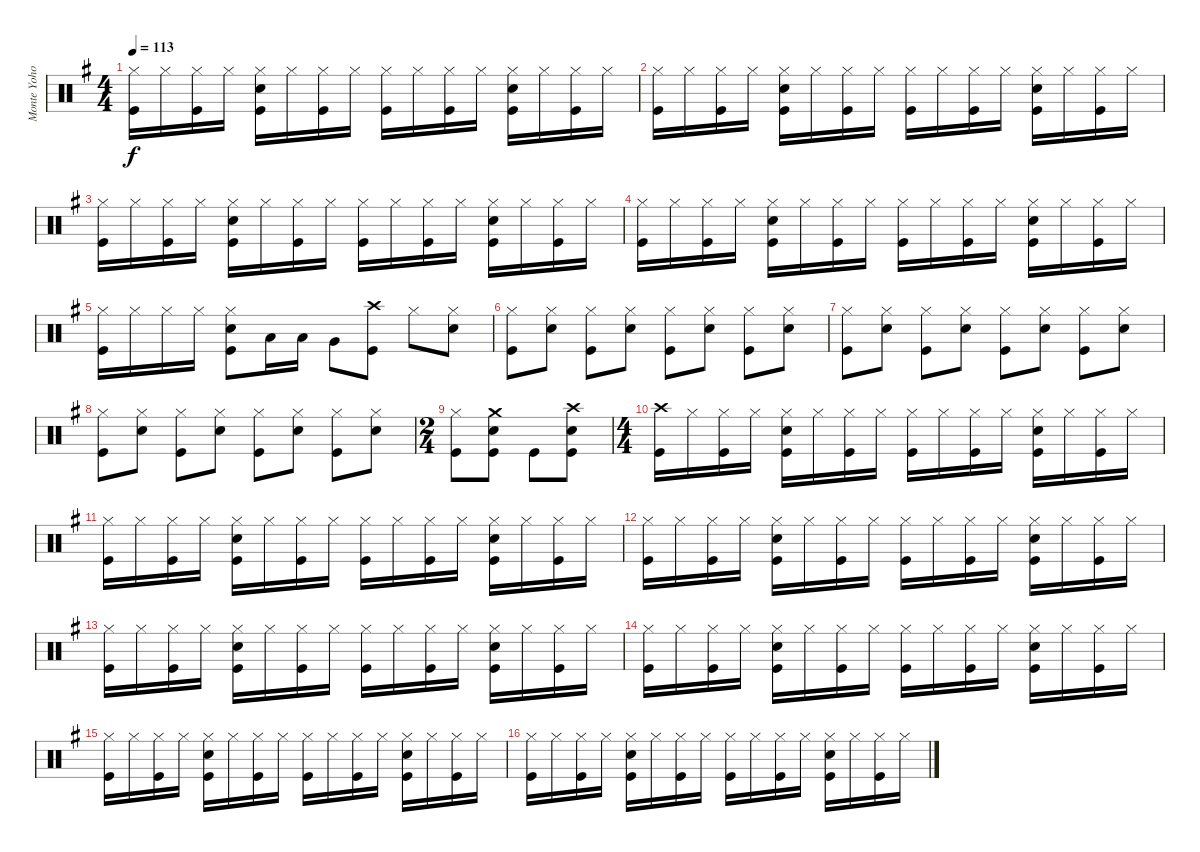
\track ("Monte Yoho Drums" "Monte Yoho") {instrument percussion}
\staff {score}
\articulation defaults
\ts (4 4)
\tempo 113
\clef neutral
\ks eminor
("Hi-Hat (closed)" "Kick (hit)").16{dy f} "Hi-Hat (closed)".16 ("Hi-Hat (closed)" "Kick (hit)").16 "Hi-Hat (closed)".16 ("Hi-Hat (closed)" "Snare (hit) 2" "Kick (hit)").16 "Hi-Hat (closed)".16 ("Hi-Hat (closed)" "Kick (hit)").16 "Hi-Hat (closed)".16 ("Hi-Hat (closed)" "Kick (hit)").16 "Hi-Hat (closed)".16 ("Hi-Hat (closed)" "Kick (hit)").16 "Hi-Hat (closed)".16 ("Hi-Hat (closed)" "Snare (hit) 2" "Kick (hit)").16 "Hi-Hat (closed)".16 ("Hi-Hat (closed)" "Kick (hit)").16 "Hi-Hat (closed)".16 |
("Hi-Hat (closed)" "Kick (hit)").16 "Hi-Hat (closed)".16 ("Hi-Hat (closed)" "Kick (hit)").16 "Hi-Hat (closed)".16 ("Hi-Hat (closed)" "Snare (hit) 2" "Kick (hit)").16 "Hi-Hat (closed)".16 ("Hi-Hat (closed)" "Kick (hit)").16 "Hi-Hat (closed)".16 ("Hi-Hat (closed)" "Kick (hit)").16 "Hi-Hat (closed)".16 ("Hi-Hat (closed)" "Kick (hit)").16 "Hi-Hat (closed)".16 ("Hi-Hat (closed)" "Snare (hit) 2" "Kick (hit)").16 "Hi-Hat (closed)".16 ("Hi-Hat (closed)" "Kick (hit)").16 "Hi-Hat (closed)".16 |
("Hi-Hat (closed)" "Kick (hit)").16 "Hi-Hat (closed)".16 ("Hi-Hat (closed)" "Kick (hit)").16 "Hi-Hat (closed)".16 ("Hi-Hat (closed)" "Snare (hit) 2" "Kick (hit)").16 "Hi-Hat (closed)".16 ("Hi-Hat (closed)" "Kick (hit)").16 "Hi-Hat (closed)".16 ("Hi-Hat (closed)" "Kick (hit)").16 "Hi-Hat (closed)".16 ("Hi-Hat (closed)" "Kick (hit)").16 "Hi-Hat (closed)".16 ("Hi-Hat (closed)" "Snare (hit) 2" "Kick (hit)").16 "Hi-Hat (closed)".16 ("Hi-Hat (closed)" "Kick (hit)").16 "Hi-Hat (closed)".16 |
("Hi-Hat (closed)" "Kick (hit)").16 "Hi-Hat (closed)".16 ("Hi-Hat (closed)" "Kick (hit)").16 "Hi-Hat (closed)".16 ("Hi-Hat (closed)" "Snare (hit) 2" "Kick (hit)").16 "Hi-Hat (closed)".16 ("Hi-Hat (closed)" "Kick (hit)").16 "Hi-Hat (closed)".16 ("Hi-Hat (closed)" "Kick (hit)").16 "Hi-Hat (closed)".16 ("Hi-Hat (closed)" "Kick (hit)").16 "Hi-Hat (closed)".16 ("Hi-Hat (closed)" "Snare (hit) 2" "Kick (hit)").16 "Hi-Hat (closed)".16 ("Hi-Hat (closed)" "Kick (hit)").16 "Hi-Hat (closed)".16 |
("Hi-Hat (closed)" "Kick (hit)").16 "Hi-Hat (closed)".16 "Hi-Hat (closed)".16 "Hi-Hat (closed)".16 ("Hi-Hat (closed)" "Snare (hit) 2" "Kick (hit)").8 "Low Tom (hit)".16 "Low Tom (hit)".16 "Very Low Tom (hit)".8 ("Crash high (hit)" "Kick (hit)").8 "Hi-Hat (closed)".8 ("Hi-Hat (closed)" "Snare (hit) 2").8 |
("Hi-Hat (closed)" "Kick (hit)").8 ("Hi-Hat (closed)" "Snare (hit) 2").8 ("Hi-Hat (closed)" "Kick (hit)").8 ("Hi-Hat (closed)" "Snare (hit) 2").8 ("Hi-Hat (closed)" "Kick (hit)").8 ("Hi-Hat (closed)" "Snare (hit) 2").8 ("Hi-Hat (closed)" "Kick (hit)").8 ("Hi-Hat (closed)" "Snare (hit) 2").8 |
("Hi-Hat (closed)" "Kick (hit)").8 ("Hi-Hat (closed)" "Snare (hit) 2").8 ("Hi-Hat (closed)" "Kick (hit)").8 ("Hi-Hat (closed)" "Snare (hit) 2").8 ("Hi-Hat (closed)" "Kick (hit)").8 ("Hi-Hat (closed)" "Snare (hit) 2").8 ("Hi-Hat (closed)" "Kick (hit)").8 ("Hi-Hat (closed)" "Snare (hit) 2").8 |
("Hi-Hat (closed)" "Kick (hit)").8 ("Hi-Hat (closed)" "Snare (hit) 2").8 ("Hi-Hat (closed)" "Kick (hit)").8 ("Hi-Hat (closed)" "Snare (hit) 2").8 ("Hi-Hat (closed)" "Kick (hit)").8 ("Hi-Hat (closed)" "Snare (hit) 2").8 ("Hi-Hat (closed)" "Kick (hit)").8 ("Hi-Hat (closed)" "Snare (hit) 2").8 |
\ts (2 4)
("Hi-Hat (closed)" "Kick (hit)").8 ("Crash medium (hit)" "Snare (hit) 2" "Kick (hit)").8 "Kick (hit)".8 ("Crash high (hit)" "Snare (hit) 2" "Kick (hit)").8 |
\ts (4 4)
("Crash high (hit)" "Kick (hit)").16 "Hi-Hat (closed)".16 ("Hi-Hat (closed)" "Kick (hit)").16 "Hi-Hat (closed)".16 ("Hi-Hat (closed)" "Snare (hit) 2" "Kick (hit)").16 "Hi-Hat (closed)".16 ("Hi-Hat (closed)" "Kick (hit)").16 "Hi-Hat (closed)".16 ("Hi-Hat (closed)" "Kick (hit)").16 "Hi-Hat (closed)".16 ("Hi-Hat (closed)" "Kick (hit)").16 "Hi-Hat (closed)".16 ("Hi-Hat (closed)" "Snare (hit) 2" "Kick (hit)").16 "Hi-Hat (closed)".16 ("Hi-Hat (closed)" "Kick (hit)").16 "Hi-Hat (closed)".16 |
("Hi-Hat (closed)" "Kick (hit)").16 "Hi-Hat (closed)".16 ("Hi-Hat (closed)" "Kick (hit)").16 "Hi-Hat (closed)".16 ("Hi-Hat (closed)" "Snare (hit) 2" "Kick (hit)").16 "Hi-Hat (closed)".16 ("Hi-Hat (closed)" "Kick (hit)").16 "Hi-Hat (closed)".16 ("Hi-Hat (closed)" "Kick (hit)").16 "Hi-Hat (closed)".16 ("Hi-Hat (closed)" "Kick (hit)").16 "Hi-Hat (closed)".16 ("Hi-Hat (closed)" "Snare (hit) 2" "Kick (hit)").16 "Hi-Hat (closed)".16 ("Hi-Hat (closed)" "Kick (hit)").16 "Hi-Hat (closed)".16 |
("Hi-Hat (closed)" "Kick (hit)").16 "Hi-Hat (closed)".16 ("Hi-Hat (closed)" "Kick (hit)").16 "Hi-Hat (closed)".16 ("Hi-Hat (closed)" "Snare (hit) 2" "Kick (hit)").16 "Hi-Hat (closed)".16 ("Hi-Hat (closed)" "Kick (hit)").16 "Hi-Hat (closed)".16 ("Hi-Hat (closed)" "Kick (hit)").16 "Hi-Hat (closed)".16 ("Hi-Hat (closed)" "Kick (hit)").16 "Hi-Hat (closed)".16 ("Hi-Hat (closed)" "Snare (hit) 2" "Kick (hit)").16 "Hi-Hat (closed)".16 ("Hi-Hat (closed)" "Kick (hit)").16 "Hi-Hat (closed)".16 |
("Hi-Hat (closed)" "Kick (hit)").16 "Hi-Hat (closed)".16 ("Hi-Hat (closed)" "Kick (hit)").16 "Hi-Hat (closed)".16 ("Hi-Hat (closed)" "Snare (hit) 2" "Kick (hit)").16 "Hi-Hat (closed)".16 ("Hi-Hat (closed)" "Kick (hit)").16 "Hi-Hat (closed)".16 ("Hi-Hat (closed)" "Kick (hit)").16 "Hi-Hat (closed)".16 ("Hi-Hat (closed)" "Kick (hit)").16 "Hi-Hat (closed)".16 ("Hi-Hat (closed)" "Snare (hit) 2" "Kick (hit)").16 "Hi-Hat (closed)".16 ("Hi-Hat (closed)" "Kick (hit)").16 "Hi-Hat (closed)".16 |
("Hi-Hat (closed)" "Kick (hit)").16 "Hi-Hat (closed)".16 ("Hi-Hat (closed)" "Kick (hit)").16 "Hi-Hat (closed)".16 ("Hi-Hat (closed)" "Snare (hit) 2" "Kick (hit)").16 "Hi-Hat (closed)".16 ("Hi-Hat (closed)" "Kick (hit)").16 "Hi-Hat (closed)".16 ("Hi-Hat (closed)" "Kick (hit)").16 "Hi-Hat (closed)".16 ("Hi-Hat (closed)" "Kick (hit)").16 "Hi-Hat (closed)".16 ("Hi-Hat (closed)" "Snare (hit) 2" "Kick (hit)").16 "Hi-Hat (closed)".16 ("Hi-Hat (closed)" "Kick (hit)").16 "Hi-Hat (closed)".16 |
("Hi-Hat (closed)" "Kick (hit)").16 "Hi-Hat (closed)".16 ("Hi-Hat (closed)" "Kick (hit)").16 "Hi-Hat (closed)".16 ("Hi-Hat (closed)" "Snare (hit) 2" "Kick (hit)").16 "Hi-Hat (closed)".16 ("Hi-Hat (closed)" "Kick (hit)").16 "Hi-Hat (closed)".16 ("Hi-Hat (closed)" "Kick (hit)").16 "Hi-Hat (closed)".16 ("Hi-Hat (closed)" "Kick (hit)").16 "Hi-Hat (closed)".16 ("Hi-Hat (closed)" "Snare (hit) 2" "Kick (hit)").16 "Hi-Hat (closed)".16 ("Hi-Hat (closed)" "Kick (hit)").16 "Hi-Hat (closed)".16 |
("Hi-Hat (closed)" "Kick (hit)").16 "Hi-Hat (closed)".16 ("Hi-Hat (closed)" "Kick (hit)").16 "Hi-Hat (closed)".16 ("Hi-Hat (closed)" "Snare (hit) 2" "Kick (hit)").16 "Hi-Hat (closed)".16 ("Hi-Hat (closed)" "Kick (hit)").16 "Hi-Hat (closed)".16 ("Hi-Hat (closed)" "Kick (hit)").16 "Hi-Hat (closed)".16 ("Hi-Hat (closed)" "Kick (hit)").16 "Hi-Hat (closed)".16 ("Hi-Hat (closed)" "Snare (hit) 2" "Kick (hit)").16 "Hi-Hat (closed)".16 ("Hi-Hat (closed)" "Kick (hit)").16 "Hi-Hat (closed)".16
